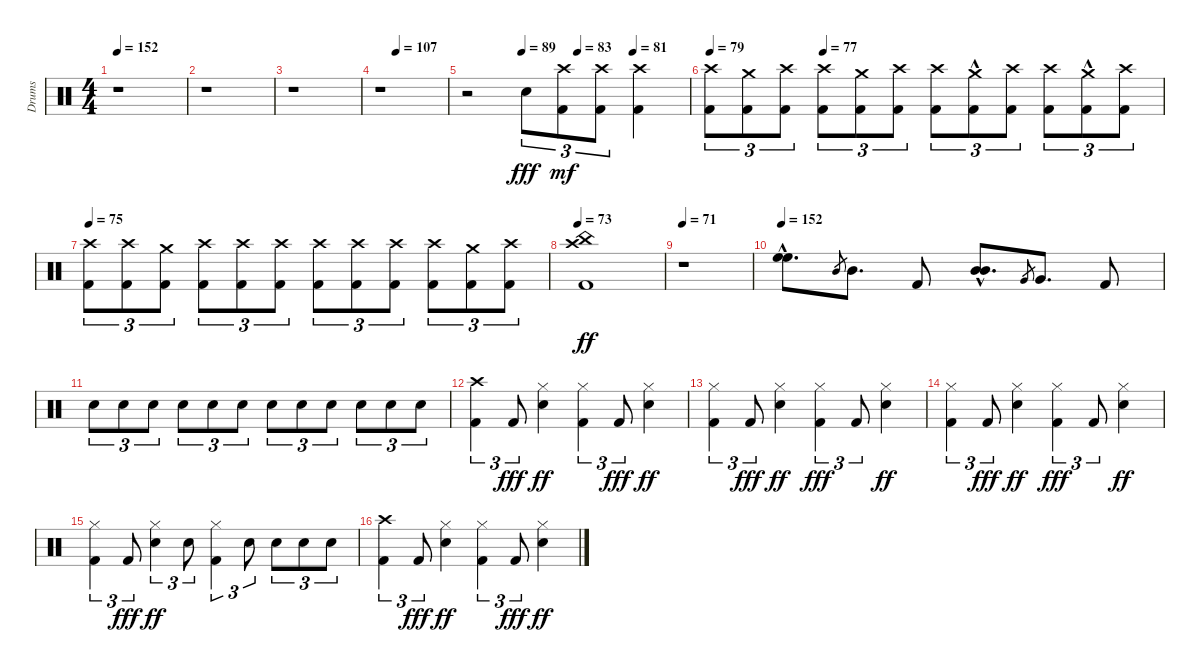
\track ("Drums" "Drums") {instrument percussion}
\staff {score}
\articulation defaults
\ts (4 4)
\tempo 152
\clef neutral
\ks c
r.1{dy fff} |
r.1 |
r.1 |
\tempo (107 0.25)
r.1 |
\tempo (89 0.25)
\tempo (83 0.5)
\tempo (81 0.75)
r.2 "Snare (hit) 2".8{tu (3 2)} ("Kick (hit) 2" "Crash high (hit)").8{tu (3 2) dy mf} ("Kick (hit) 2" "Crash high (hit)").8{tu (3 2)} ("Kick (hit) 2" "Crash high (hit)").4 |
\tempo 79
\tempo (77 0.25)
("Kick (hit) 2" "Crash high (hit)").8{tu (3 2)} ("Kick (hit) 2" "Crash medium (hit)").8{tu (3 2)} ("Kick (hit) 2" "Crash high (hit)").8{tu (3 2)} ("Kick (hit) 2" "Crash high (hit)").8{tu (3 2)} ("Kick (hit) 2" "Crash medium (hit)").8{tu (3 2)} ("Kick (hit) 2" "Crash high (hit)").8{tu (3 2)} ("Kick (hit) 2" "Crash high (hit)").8{tu (3 2)} ("Kick (hit) 2"{hac} "Crash medium (hit)").8{tu (3 2)} ("Kick (hit) 2" "Crash high (hit)").8{tu (3 2)} ("Kick (hit) 2" "Crash high (hit)").8{tu (3 2)} ("Kick (hit) 2"{hac} "Crash medium (hit)").8{tu (3 2)} ("Kick (hit) 2" "Crash high (hit)").8{tu (3 2)} |
\tempo 75
("Kick (hit) 2" "Crash high (hit)").8{tu (3 2)} ("Kick (hit) 2" "Crash high (hit)").8{tu (3 2)} ("Kick (hit) 2" "Crash medium (hit)").8{tu (3 2)} ("Kick (hit) 2" "Crash high (hit)").8{tu (3 2)} ("Kick (hit) 2" "Crash high (hit)").8{tu (3 2)} ("Kick (hit) 2" "Crash high (hit)").8{tu (3 2)} ("Kick (hit) 2" "Crash high (hit)").8{tu (3 2)} ("Kick (hit) 2" "Crash high (hit)").8{tu (3 2)} ("Kick (hit) 2" "Crash high (hit)").8{tu (3 2)} ("Kick (hit) 2" "Crash high (hit)").8{tu (3 2)} ("Kick (hit) 2" "Crash medium (hit)").8{tu (3 2)} ("Kick (hit) 2" "Crash high (hit)").8{tu (3 2)} |
\tempo 73
("Kick (hit) 2" "Crash high (hit)" "China (hit)").1{dy ff} |
\tempo 71
r.1 |
\tempo 152
("High Floor Tom (hit)" "High Floor Tom (hit)"{hac}).8{d} "Mid Tom (hit)".8{gr} "Mid Tom (hit)".8{d} "Kick (hit) 2".8 ("Mid Tom (hit)" "Mid Tom (hit)"{hac}).8{d} "Very Low Tom (hit)".8{gr} "Very Low Tom (hit)".8{d} "Kick (hit) 2".8 |
"Snare (hit) 2".8{tu (3 2)} "Snare (hit) 2".8{tu (3 2)} "Snare (hit) 2".8{tu (3 2)} "Snare (hit) 2".8{tu (3 2)} "Snare (hit) 2".8{tu (3 2)} "Snare (hit) 2".8{tu (3 2)} "Snare (hit) 2".8{tu (3 2)} "Snare (hit) 2".8{tu (3 2)} "Snare (hit) 2".8{tu (3 2)} "Snare (hit) 2".8{tu (3 2)} "Snare (hit) 2".8{tu (3 2)} "Snare (hit) 2".8{tu (3 2)} |
("Kick (hit) 2" "Crash high (hit)").4{tu (3 2)} "Kick (hit) 2".8{tu (3 2) dy fff} ("Snare (hit) 2" "Hi-Hat (closed)").4{dy ff} ("Kick (hit) 2" "Hi-Hat (closed)").4{tu (3 2)} "Kick (hit) 2".8{tu (3 2) dy fff} ("Snare (hit) 2" "Hi-Hat (closed)").4{dy ff} |
("Kick (hit) 2" "Hi-Hat (closed)").4{tu (3 2)} "Kick (hit) 2".8{tu (3 2) dy fff} ("Snare (hit) 2" "Hi-Hat (closed)").4{dy ff} ("Hi-Hat (closed)" "Kick (hit) 2").4{tu (3 2) dy fff} "Kick (hit) 2".8{tu (3 2)} ("Snare (hit) 2" "Hi-Hat (closed)").4{dy ff} |
("Kick (hit) 2" "Hi-Hat (closed)").4{tu (3 2)} "Kick (hit) 2".8{tu (3 2) dy fff} ("Snare (hit) 2" "Hi-Hat (closed)").4{dy ff} ("Hi-Hat (closed)" "Kick (hit) 2").4{tu (3 2) dy fff} "Kick (hit) 2".8{tu (3 2)} ("Snare (hit) 2" "Hi-Hat (closed)").4{dy ff} |
("Kick (hit) 2" "Hi-Hat (closed)").4{tu (3 2)} "Kick (hit) 2".8{tu (3 2) dy fff} ("Snare (hit) 2" "Hi-Hat (closed)").4{tu (3 2) dy ff} "Snare (hit) 2".8{tu (3 2)} ("Kick (hit) 2" "Hi-Hat (closed)").4{tu (3 2)} "Snare (hit) 2".8{tu (3 2)} "Snare (hit) 2".8{tu (3 2)} "Snare (hit) 2".8{tu (3 2)} "Snare (hit) 2".8{tu (3 2)} |
("Kick (hit) 2" "Crash high (hit)").4{tu (3 2)} "Kick (hit) 2".8{tu (3 2) dy fff} ("Snare (hit) 2" "Hi-Hat (closed)").4{dy ff} ("Kick (hit) 2" "Hi-Hat (closed)").4{tu (3 2)} "Kick (hit) 2".8{tu (3 2) dy fff} ("Snare (hit) 2" "Hi-Hat (closed)").4{dy ff}
